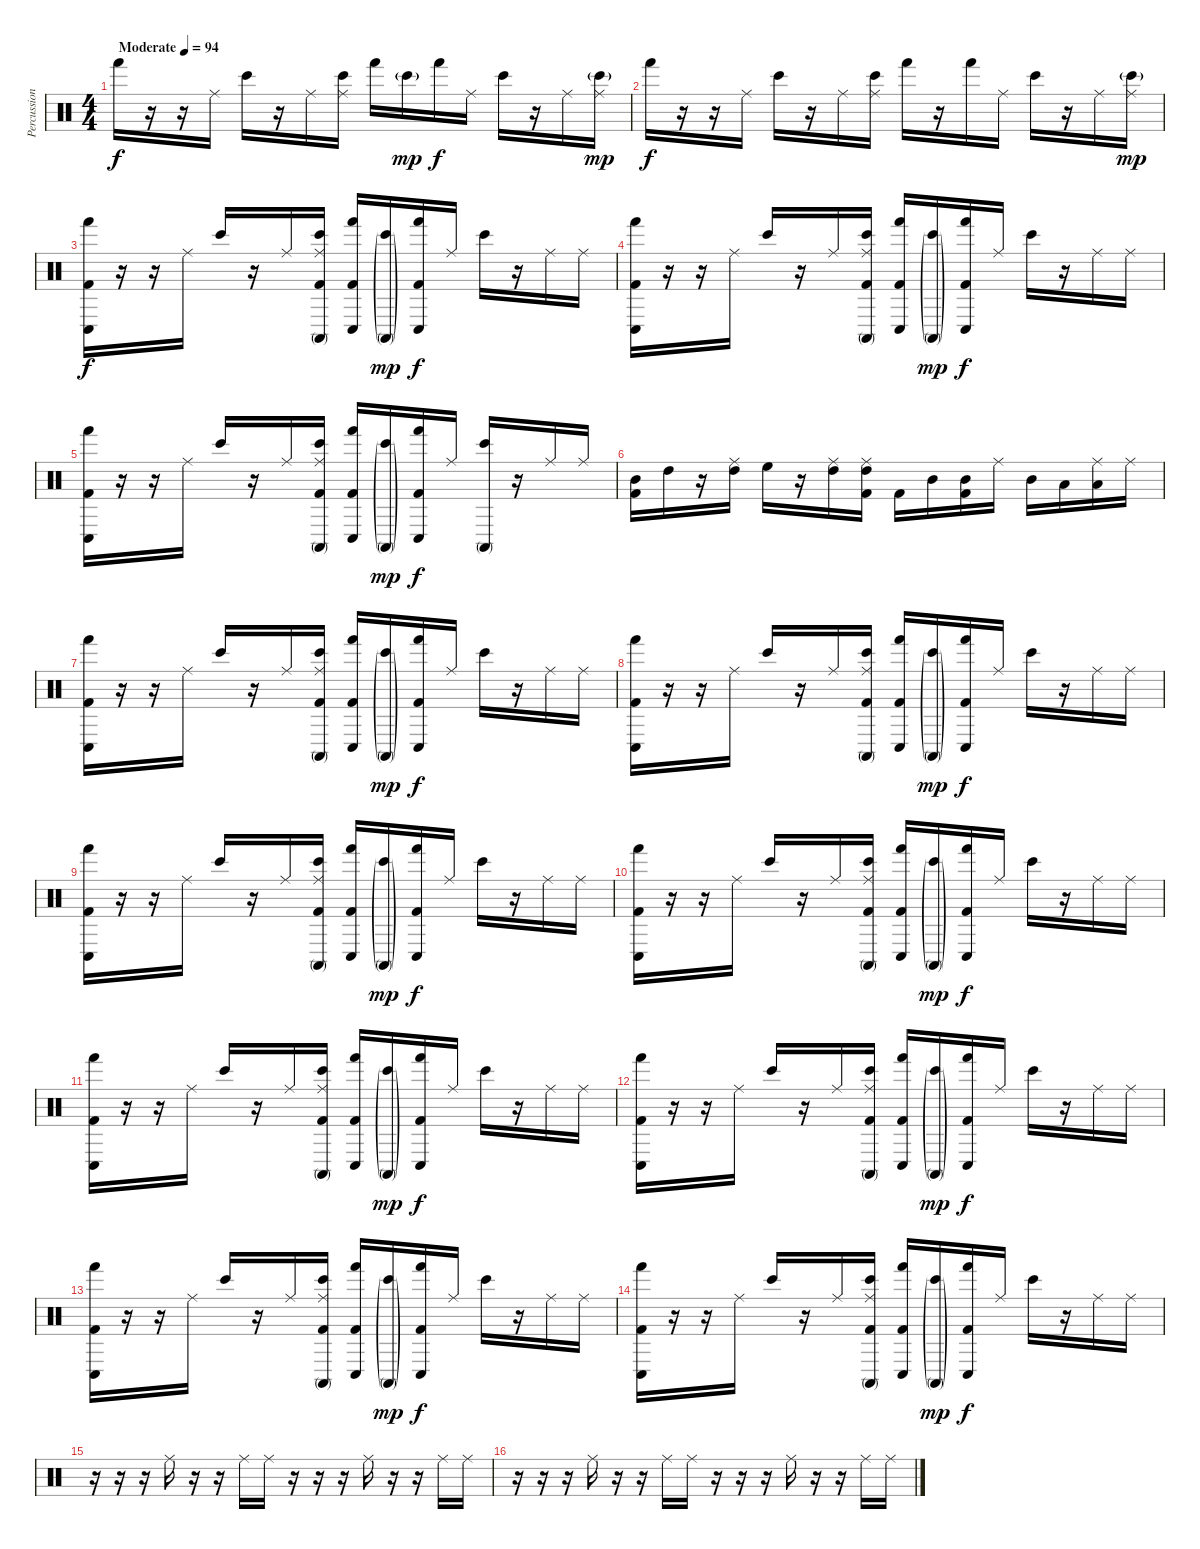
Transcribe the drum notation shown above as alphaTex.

\track ("Percussion" "Percussion") {instrument percussion}
\staff {score}
\articulation defaults
\ts (4 4)
\tempo (94 "Moderate")
\clef neutral
\ks c "Hand (hit)".16{dy f}
r.16 r.16 "Ride (middle)".16 "Bongo High (hit)".16 r.16 "Ride (middle)".16 ("Bongo High (hit)" "Ride (middle)").16 "Hand (hit)".16 "Bongo High (hit)"{g}.16{dy mp} "Hand (hit)".16{dy f} "Ride (middle)".16 "Bongo High (hit)".16 r.16 "Ride (middle)".16 ("Bongo High (hit)"{g} "Ride (middle)").16{dy mp} |
"Hand (hit)".16{dy f} r.16 r.16 "Ride (middle)".16 "Bongo High (hit)".16 r.16 "Ride (middle)".16 ("Bongo High (hit)" "Ride (middle)").16 "Hand (hit)".16 r.16 "Hand (hit)".16 "Ride (middle)".16 "Bongo High (hit)".16 r.16 "Ride (middle)".16 ("Bongo High (hit)"{g} "Ride (middle)").16{dy mp} |
("Hand (hit)" "Conga low (hit)" "Kick (hit) 2").16{dy f} r.16 r.16 "Ride (middle)".16 "Bongo High (hit)".16 r.16 "Ride (middle)".16 ("Bongo High (hit)" "Conga high (mute)" "Ride (middle)" "Kick (hit) 2").16 ("Hand (hit)" "Conga low (hit)" "Kick (hit) 2").16 ("Bongo High (hit)"{g} "Conga high (mute)"{g}).16{dy mp} ("Hand (hit)" "Conga low (hit)" "Kick (hit) 2").16{dy f} "Ride (middle)".16 "Bongo High (hit)".16 r.16 "Ride (middle)".16 "Ride (middle)".16 |
("Hand (hit)" "Conga low (hit)" "Kick (hit) 2").16 r.16 r.16 "Ride (middle)".16 "Bongo High (hit)".16 r.16 "Ride (middle)".16 ("Bongo High (hit)" "Conga high (mute)" "Ride (middle)" "Kick (hit) 2").16 ("Hand (hit)" "Conga low (hit)" "Kick (hit) 2").16 ("Bongo High (hit)"{g} "Conga high (mute)"{g}).16{dy mp} ("Hand (hit)" "Conga low (hit)" "Kick (hit) 2").16{dy f} "Ride (middle)".16 "Bongo High (hit)".16 r.16 "Ride (middle)".16 "Ride (middle)".16 |
("Hand (hit)" "Conga low (hit)" "Kick (hit) 2").16 r.16 r.16 "Ride (middle)".16 "Bongo High (hit)".16 r.16 "Ride (middle)".16 ("Bongo High (hit)" "Conga high (mute)" "Ride (middle)" "Kick (hit) 2").16 ("Hand (hit)" "Conga low (hit)" "Kick (hit) 2").16 ("Bongo High (hit)"{g} "Conga high (mute)"{g}).16{dy mp} ("Hand (hit)" "Conga low (hit)" "Kick (hit) 2").16{dy f} "Ride (middle)".16 ("Bongo High (hit)" "Conga high (mute)").16 r.16 "Ride (middle)".16 "Ride (middle)".16 |
("Mid Tom (hit)" "Kick (hit) 2").16 "High Tom (hit)".16 r.16 ("High Tom (hit)" "Ride (middle)").16 "High Floor Tom (hit)".16 r.16 ("High Tom (hit)" "Ride (middle)").16 ("High Tom (hit)" "Ride (middle)" "Kick (hit) 2").16 "Kick (hit) 2".16 "Mid Tom (hit)".16 ("Mid Tom (hit)" "Kick (hit) 2").16 "Ride (middle)".16 "Mid Tom (hit)".16 "Low Tom (hit)".16 ("Low Floor Tom (hit)" "Ride (middle)").16 "Ride (middle)".16 |
("Hand (hit)" "Conga low (hit)" "Kick (hit) 2").16 r.16 r.16 "Ride (middle)".16 "Bongo High (hit)".16 r.16 "Ride (middle)".16 ("Bongo High (hit)" "Conga high (mute)" "Ride (middle)" "Kick (hit) 2").16 ("Hand (hit)" "Conga low (hit)" "Kick (hit) 2").16 ("Bongo High (hit)"{g} "Conga high (mute)"{g}).16{dy mp} ("Hand (hit)" "Conga low (hit)" "Kick (hit) 2").16{dy f} "Ride (middle)".16 "Bongo High (hit)".16 r.16 "Ride (middle)".16 "Ride (middle)".16 |
("Hand (hit)" "Conga low (hit)" "Kick (hit) 2").16 r.16 r.16 "Ride (middle)".16 "Bongo High (hit)".16 r.16 "Ride (middle)".16 ("Bongo High (hit)" "Conga high (mute)" "Ride (middle)" "Kick (hit) 2").16 ("Hand (hit)" "Conga low (hit)" "Kick (hit) 2").16 ("Bongo High (hit)"{g} "Conga high (mute)"{g}).16{dy mp} ("Hand (hit)" "Conga low (hit)" "Kick (hit) 2").16{dy f} "Ride (middle)".16 "Bongo High (hit)".16 r.16 "Ride (middle)".16 "Ride (middle)".16 |
("Hand (hit)" "Conga low (hit)" "Kick (hit) 2").16 r.16 r.16 "Ride (middle)".16 "Bongo High (hit)".16 r.16 "Ride (middle)".16 ("Bongo High (hit)" "Conga high (mute)" "Ride (middle)" "Kick (hit) 2").16 ("Hand (hit)" "Conga low (hit)" "Kick (hit) 2").16 ("Bongo High (hit)"{g} "Conga high (mute)"{g}).16{dy mp} ("Hand (hit)" "Conga low (hit)" "Kick (hit) 2").16{dy f} "Ride (middle)".16 "Bongo High (hit)".16 r.16 "Ride (middle)".16 "Ride (middle)".16 |
("Hand (hit)" "Conga low (hit)" "Kick (hit) 2").16 r.16 r.16 "Ride (middle)".16 "Bongo High (hit)".16 r.16 "Ride (middle)".16 ("Bongo High (hit)" "Conga high (mute)" "Ride (middle)" "Kick (hit) 2").16 ("Hand (hit)" "Conga low (hit)" "Kick (hit) 2").16 ("Bongo High (hit)"{g} "Conga high (mute)"{g}).16{dy mp} ("Hand (hit)" "Conga low (hit)" "Kick (hit) 2").16{dy f} "Ride (middle)".16 "Bongo High (hit)".16 r.16 "Ride (middle)".16 "Ride (middle)".16 |
("Hand (hit)" "Conga low (hit)" "Kick (hit) 2").16 r.16 r.16 "Ride (middle)".16 "Bongo High (hit)".16 r.16 "Ride (middle)".16 ("Bongo High (hit)" "Conga high (mute)" "Ride (middle)" "Kick (hit) 2").16 ("Hand (hit)" "Conga low (hit)" "Kick (hit) 2").16 ("Bongo High (hit)"{g} "Conga high (mute)"{g}).16{dy mp} ("Hand (hit)" "Conga low (hit)" "Kick (hit) 2").16{dy f} "Ride (middle)".16 "Bongo High (hit)".16 r.16 "Ride (middle)".16 "Ride (middle)".16 |
("Hand (hit)" "Conga low (hit)" "Kick (hit) 2").16 r.16 r.16 "Ride (middle)".16 "Bongo High (hit)".16 r.16 "Ride (middle)".16 ("Bongo High (hit)" "Conga high (mute)" "Ride (middle)" "Kick (hit) 2").16 ("Hand (hit)" "Conga low (hit)" "Kick (hit) 2").16 ("Bongo High (hit)"{g} "Conga high (mute)"{g}).16{dy mp} ("Hand (hit)" "Conga low (hit)" "Kick (hit) 2").16{dy f} "Ride (middle)".16 "Bongo High (hit)".16 r.16 "Ride (middle)".16 "Ride (middle)".16 |
("Hand (hit)" "Conga low (hit)" "Kick (hit) 2").16 r.16 r.16 "Ride (middle)".16 "Bongo High (hit)".16 r.16 "Ride (middle)".16 ("Bongo High (hit)" "Conga high (mute)" "Ride (middle)" "Kick (hit) 2").16 ("Hand (hit)" "Conga low (hit)" "Kick (hit) 2").16 ("Bongo High (hit)"{g} "Conga high (mute)"{g}).16{dy mp} ("Hand (hit)" "Conga low (hit)" "Kick (hit) 2").16{dy f} "Ride (middle)".16 "Bongo High (hit)".16 r.16 "Ride (middle)".16 "Ride (middle)".16 |
("Hand (hit)" "Conga low (hit)" "Kick (hit) 2").16 r.16 r.16 "Ride (middle)".16 "Bongo High (hit)".16 r.16 "Ride (middle)".16 ("Bongo High (hit)" "Conga high (mute)" "Ride (middle)" "Kick (hit) 2").16 ("Hand (hit)" "Conga low (hit)" "Kick (hit) 2").16 ("Bongo High (hit)"{g} "Conga high (mute)"{g}).16{dy mp} ("Hand (hit)" "Conga low (hit)" "Kick (hit) 2").16{dy f} "Ride (middle)".16 "Bongo High (hit)".16 r.16 "Ride (middle)".16 "Ride (middle)".16 |
r.16 r.16 r.16 "Ride (middle)".16 r.16 r.16 "Ride (middle)".16 "Ride (middle)".16 r.16 r.16 r.16 "Ride (middle)".16 r.16 r.16 "Ride (middle)".16 "Ride (middle)".16 |
r.16 r.16 r.16 "Ride (middle)".16 r.16 r.16 "Ride (middle)".16 "Ride (middle)".16 r.16 r.16 r.16 "Ride (middle)".16 r.16 r.16 "Ride (middle)".16 "Ride (middle)".16
